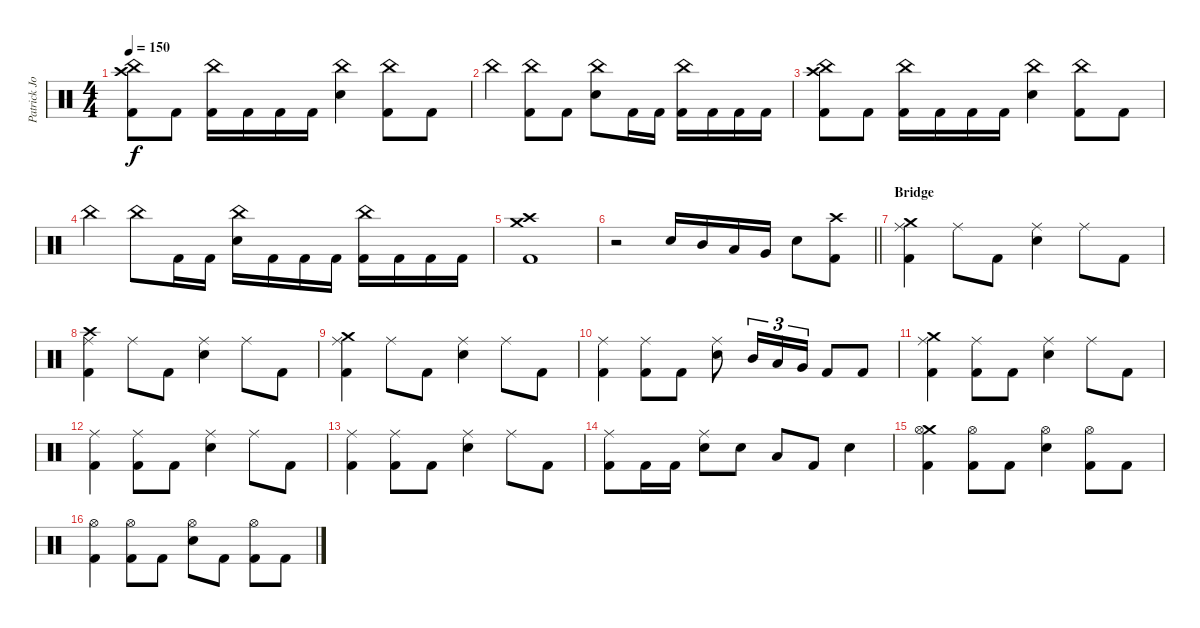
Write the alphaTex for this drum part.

\track ("Patrick Johansson" "Patrick Jo") {instrument percussion}
\staff {score}
\articulation defaults
\ts (4 4)
\tempo 150
\clef neutral
\ks c
("Crash high (hit)" "China (hit)" "Kick (hit) 2").8{dy f} "Kick (hit) 2".8 ("China (hit)" "Kick (hit) 2").16 "Kick (hit) 2".16 "Kick (hit) 2".16 "Kick (hit) 2".16 ("China (hit)" "Snare (hit) 2").4 ("China (hit)" "Kick (hit) 2").8 "Kick (hit) 2".8 |
"China (hit)".4 ("China (hit)" "Kick (hit) 2").8 "Kick (hit) 2".8 ("China (hit)" "Snare (hit) 2").8 "Kick (hit) 2".16 "Kick (hit) 2".16 ("China (hit)" "Kick (hit) 2").16 "Kick (hit) 2".16 "Kick (hit) 2".16 "Kick (hit) 2".16 |
("Crash high (hit)" "China (hit)" "Kick (hit) 2").8 "Kick (hit) 2".8 ("China (hit)" "Kick (hit) 2").16 "Kick (hit) 2".16 "Kick (hit) 2".16 "Kick (hit) 2".16 ("China (hit)" "Snare (hit) 2").4 ("China (hit)" "Kick (hit) 2").8 "Kick (hit) 2".8 |
"China (hit)".4 "China (hit)".8 "Kick (hit) 2".16 "Kick (hit) 2".16 ("China (hit)" "Snare (hit) 2").16 "Kick (hit) 2".16 "Kick (hit) 2".16 "Kick (hit) 2".16 ("China (hit)" "Kick (hit) 2").16 "Kick (hit) 2".16 "Kick (hit) 2".16 "Kick (hit) 2".16 |
("Crash medium (hit)" "Crash high (hit)" "Kick (hit) 2").1 |
\barLineRight lightlight
r.2 "Snare (hit) 2".16 "Mid Tom (hit)".16 "Low Tom (hit)".16 "Very Low Tom (hit)".16 "Snare (hit) 2".8 ("Crash high (hit)" "Kick (hit) 2").8 |
\section ("" "Bridge")
("Crash medium (hit)" "Ride (middle)" "Kick (hit) 2").4 "Ride (middle)".8 "Kick (hit) 2".8 ("Ride (middle)" "Snare (hit) 2").4 "Ride (middle)".8 "Kick (hit) 2".8 |
("Crash high (hit)" "Ride (middle)" "Kick (hit) 2").4 "Ride (middle)".8 "Kick (hit) 2".8 ("Ride (middle)" "Snare (hit) 2").4 "Ride (middle)".8 "Kick (hit) 2".8 |
("Crash medium (hit)" "Ride (middle)" "Kick (hit) 2").4 "Ride (middle)".8 "Kick (hit) 2".8 ("Ride (middle)" "Snare (hit) 2").4 "Ride (middle)".8 "Kick (hit) 2".8 |
("Ride (middle)" "Kick (hit) 2").4 ("Ride (middle)" "Kick (hit) 2").8 "Kick (hit) 2".8 ("Ride (middle)" "Snare (hit) 2").8 "Mid Tom (hit)".16{tu (3 2)} "Low Tom (hit)".16{tu (3 2)} "Very Low Tom (hit)".16{tu (3 2)} "Kick (hit) 2".8 "Kick (hit) 2".8 |
("Crash medium (hit)" "Ride (middle)" "Kick (hit) 2").4 ("Ride (middle)" "Kick (hit) 2").8 "Kick (hit) 2".8 ("Ride (middle)" "Snare (hit) 2").4 "Ride (middle)".8 "Kick (hit) 2".8 |
("Ride (middle)" "Kick (hit) 2").4 ("Ride (middle)" "Kick (hit) 2").8 "Kick (hit) 2".8 ("Ride (middle)" "Snare (hit) 2").4 "Ride (middle)".8 "Kick (hit) 2".8 |
("Ride (middle)" "Kick (hit) 2").4 ("Ride (middle)" "Kick (hit) 2").8 "Kick (hit) 2".8 ("Ride (middle)" "Snare (hit) 2").4 "Ride (middle)".8 "Kick (hit) 2".8 |
("Ride (middle)" "Kick (hit) 2").8 "Kick (hit) 2".16 "Kick (hit) 2".16 ("Ride (middle)" "Snare (hit) 2").8 "Snare (hit) 2".8 "Low Tom (hit)".8 "Kick (hit) 2".8 "Snare (hit) 2".4 |
("Crash medium (hit)" "Hi-Hat (open)" "Kick (hit) 2").4 ("Hi-Hat (open)" "Kick (hit) 2").8 "Kick (hit) 2".8 ("Hi-Hat (open)" "Snare (hit) 2").4 ("Hi-Hat (open)" "Kick (hit) 2").8 "Kick (hit) 2".8 |
("Hi-Hat (open)" "Kick (hit) 2").4 ("Hi-Hat (open)" "Kick (hit) 2").8 "Kick (hit) 2".8 ("Hi-Hat (open)" "Snare (hit) 2").8 "Kick (hit) 2".8 ("Hi-Hat (open)" "Kick (hit) 2").8 "Kick (hit) 2".8
